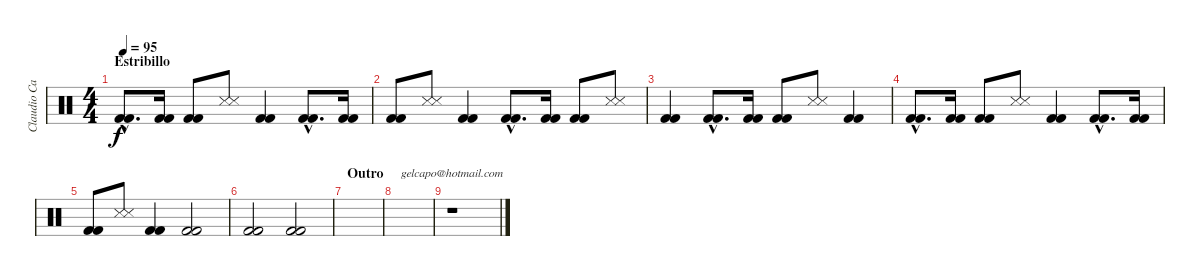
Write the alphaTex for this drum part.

\track ("Claudio Cardaci (Percusión)" "Claudio Ca") {instrument percussion}
\staff {score}
\articulation defaults
\chord ("gelcapo@hotmail.com") {firstfret 0}
\ts (4 4)
\section ("" "Estribillo")
\tempo 95
\clef neutral
\ks c
("Kick (hit) 2"{hac} "Kick (hit) 2"{hac}).8{d dy f} ("Kick (hit) 2" "Kick (hit) 2").16 ("Kick (hit) 2" "Kick (hit) 2").8 ("Snare (side stick) 3" "Snare (side stick) 3").8 ("Kick (hit) 2" "Kick (hit) 2").4 ("Kick (hit) 2"{hac} "Kick (hit) 2"{hac}).8{d} ("Kick (hit) 2" "Kick (hit) 2").16 |
("Kick (hit) 2" "Kick (hit) 2").8 ("Snare (side stick) 3" "Snare (side stick) 3").8 ("Kick (hit) 2" "Kick (hit) 2").4 ("Kick (hit) 2"{hac} "Kick (hit) 2"{hac}).8{d} ("Kick (hit) 2" "Kick (hit) 2").16 ("Kick (hit) 2" "Kick (hit) 2").8 ("Snare (side stick) 3" "Snare (side stick) 3").8 |
("Kick (hit) 2" "Kick (hit) 2").4 ("Kick (hit) 2"{hac} "Kick (hit) 2"{hac}).8{d} ("Kick (hit) 2" "Kick (hit) 2").16 ("Kick (hit) 2" "Kick (hit) 2").8 ("Snare (side stick) 3" "Snare (side stick) 3").8 ("Kick (hit) 2" "Kick (hit) 2").4 |
("Kick (hit) 2"{hac} "Kick (hit) 2"{hac}).8{d} ("Kick (hit) 2" "Kick (hit) 2").16 ("Kick (hit) 2" "Kick (hit) 2").8 ("Snare (side stick) 3" "Snare (side stick) 3").8 ("Kick (hit) 2" "Kick (hit) 2").4 ("Kick (hit) 2"{hac} "Kick (hit) 2"{hac}).8{d} ("Kick (hit) 2" "Kick (hit) 2").16 |
("Kick (hit) 2" "Kick (hit) 2").8 ("Snare (side stick) 3" "Snare (side stick) 3").8 ("Kick (hit) 2" "Kick (hit) 2").4 ("Kick (hit) 2" "Kick (hit) 2").2 |
("Kick (hit) 2" "Kick (hit) 2").2 ("Kick (hit) 2" "Kick (hit) 2").2 |
\section ("" "Outro")
|
|
r.1{ch "gelcapo@hotmail.com"}
